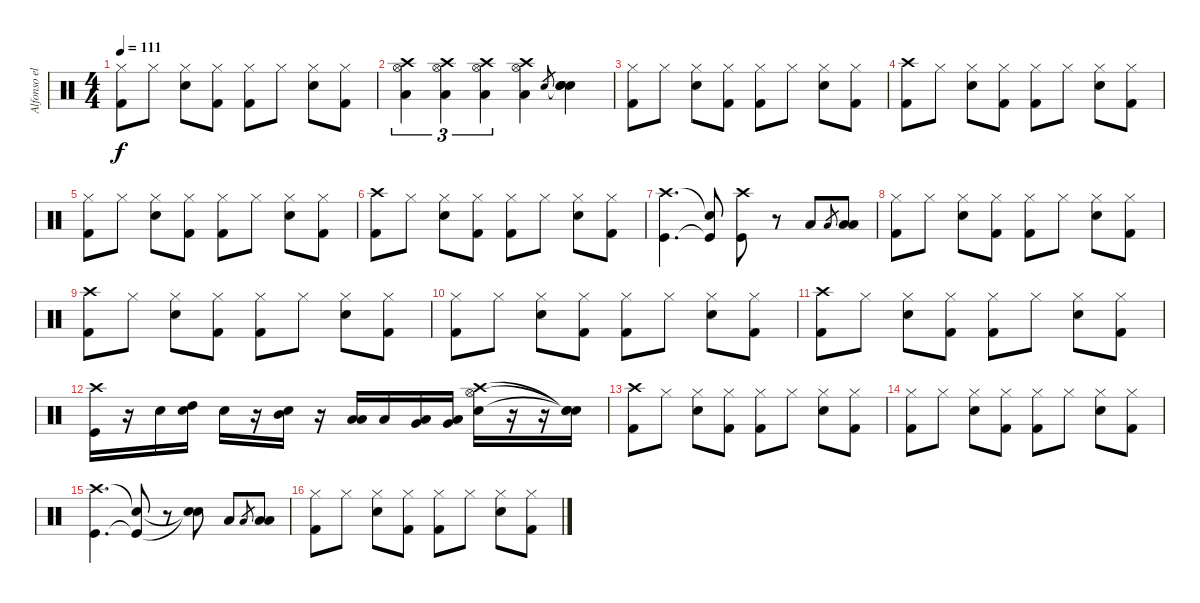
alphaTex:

\track ("Alfonso el flaco Andre" "Alfonso el") {instrument percussion}
\staff {score}
\articulation defaults
\ts (4 4)
\tempo 111
\clef neutral
\ks c
("Hi-Hat (closed)" "Kick (hit) 2").8{dy f} "Hi-Hat (closed)".8 ("Hi-Hat (closed)" "Snare (hit) 2").8 ("Hi-Hat (closed)" "Kick (hit) 2").8 ("Hi-Hat (closed)" "Kick (hit) 2").8 "Hi-Hat (closed)".8 ("Hi-Hat (closed)" "Snare (hit) 2").8 ("Hi-Hat (closed)" "Kick (hit) 2").8 |
("Hi-Hat (open)" "Crash high (hit)" "Low Floor Tom (hit)").4{tu (3 2)} ("Hi-Hat (open)" "Crash high (hit)" "Low Floor Tom (hit)").4{tu (3 2)} ("Hi-Hat (open)" "Crash high (hit)" "Low Floor Tom (hit)").4{tu (3 2)} ("Hi-Hat (open)" "Crash high (hit)" "Low Floor Tom (hit)").4 "Snare (hit) 2".8{gr} ("Snare (hit)"{t} "Snare (hit) 2" "Snare (hit) 2").4 |
("Hi-Hat (closed)" "Kick (hit) 2").8 "Hi-Hat (closed)".8 ("Hi-Hat (closed)" "Snare (hit) 2").8 ("Hi-Hat (closed)" "Kick (hit) 2").8 ("Hi-Hat (closed)" "Kick (hit) 2").8 "Hi-Hat (closed)".8 ("Hi-Hat (closed)" "Snare (hit) 2").8 ("Hi-Hat (closed)" "Kick (hit) 2").8 |
("Crash high (hit)" "Kick (hit) 2").8 "Hi-Hat (closed)".8 ("Hi-Hat (closed)" "Snare (hit) 2").8 ("Hi-Hat (closed)" "Kick (hit) 2").8 ("Hi-Hat (closed)" "Kick (hit) 2").8 "Hi-Hat (closed)".8 ("Hi-Hat (closed)" "Snare (hit) 2").8 ("Hi-Hat (closed)" "Kick (hit) 2").8 |
("Hi-Hat (closed)" "Kick (hit) 2").8 "Hi-Hat (closed)".8 ("Hi-Hat (closed)" "Snare (hit) 2").8 ("Hi-Hat (closed)" "Kick (hit) 2").8 ("Hi-Hat (closed)" "Kick (hit) 2").8 "Hi-Hat (closed)".8 ("Hi-Hat (closed)" "Snare (hit) 2").8 ("Hi-Hat (closed)" "Kick (hit) 2").8 |
("Crash high (hit)" "Kick (hit) 2").8 "Hi-Hat (closed)".8 ("Hi-Hat (closed)" "Snare (hit) 2").8 ("Hi-Hat (closed)" "Kick (hit) 2").8 ("Hi-Hat (closed)" "Kick (hit) 2").8 "Hi-Hat (closed)".8 ("Hi-Hat (closed)" "Snare (hit) 2").8 ("Hi-Hat (closed)" "Kick (hit) 2").8 |
("Crash high (hit)" "Kick (hit)").4{d} ("Snare (hit) 2"{t} "Kick (hit)"{t}).8 ("Kick (hit)" "Crash high (hit)").8 r.8 "Low Tom (hit)".8 "Low Floor Tom (hit)".8{gr} ("Low Floor Tom (hit)" "Low Floor Tom (hit)").8 |
("Hi-Hat (closed)" "Kick (hit) 2").8 "Hi-Hat (closed)".8 ("Hi-Hat (closed)" "Snare (hit) 2").8 ("Hi-Hat (closed)" "Kick (hit) 2").8 ("Hi-Hat (closed)" "Kick (hit) 2").8 "Hi-Hat (closed)".8 ("Hi-Hat (closed)" "Snare (hit) 2").8 ("Hi-Hat (closed)" "Kick (hit) 2").8 |
("Crash high (hit)" "Kick (hit) 2").8 "Hi-Hat (closed)".8 ("Hi-Hat (closed)" "Snare (hit) 2").8 ("Hi-Hat (closed)" "Kick (hit) 2").8 ("Hi-Hat (closed)" "Kick (hit) 2").8 "Hi-Hat (closed)".8 ("Hi-Hat (closed)" "Snare (hit) 2").8 ("Hi-Hat (closed)" "Kick (hit) 2").8 |
("Hi-Hat (closed)" "Kick (hit) 2").8 "Hi-Hat (closed)".8 ("Hi-Hat (closed)" "Snare (hit) 2").8 ("Hi-Hat (closed)" "Kick (hit) 2").8 ("Hi-Hat (closed)" "Kick (hit) 2").8 "Hi-Hat (closed)".8 ("Hi-Hat (closed)" "Snare (hit) 2").8 ("Hi-Hat (closed)" "Kick (hit) 2").8 |
("Crash high (hit)" "Kick (hit) 2").8 "Hi-Hat (closed)".8 ("Hi-Hat (closed)" "Snare (hit) 2").8 ("Hi-Hat (closed)" "Kick (hit) 2").8 ("Hi-Hat (closed)" "Kick (hit) 2").8 "Hi-Hat (closed)".8 ("Hi-Hat (closed)" "Snare (hit) 2").8 ("Hi-Hat (closed)" "Kick (hit) 2").8 |
("Crash high (hit)" "Kick (hit)").16 r.16 "Snare (hit) 2".16 ("High Tom (hit)" "Snare (hit) 2").16 "Snare (hit) 2".16 r.16 ("Mid Tom (hit)" "Snare (hit) 2").16 r.16 ("Low Floor Tom (hit)" "Low Tom (hit)").16 "Low Tom (hit)".16 ("Low Floor Tom (hit)" "Very Low Tom (hit)").16 ("Low Floor Tom (hit)" "Very Low Tom (hit)").16 ("Hi-Hat (open)" "Crash high (hit)" "Snare (hit) 2").16 r.16 r.16 ("Snare (hit)"{t} "Snare (hit)"{t} "Snare (hit)"{t}).16 |
("Crash high (hit)" "Kick (hit) 2").8 "Hi-Hat (closed)".8 ("Hi-Hat (closed)" "Snare (hit) 2").8 ("Hi-Hat (closed)" "Kick (hit) 2").8 ("Hi-Hat (closed)" "Kick (hit) 2").8 "Hi-Hat (closed)".8 ("Hi-Hat (closed)" "Snare (hit) 2").8 ("Hi-Hat (closed)" "Kick (hit) 2").8 |
("Hi-Hat (closed)" "Kick (hit) 2").8 "Hi-Hat (closed)".8 ("Hi-Hat (closed)" "Snare (hit) 2").8 ("Hi-Hat (closed)" "Kick (hit) 2").8 ("Hi-Hat (closed)" "Kick (hit) 2").8 "Hi-Hat (closed)".8 ("Hi-Hat (closed)" "Snare (hit) 2").8 ("Hi-Hat (closed)" "Kick (hit) 2").8 |
("Crash high (hit)" "Kick (hit)").4{d} ("Snare (hit) 2"{t} "Kick (hit)"{t}).8 r.8 ("Snare (hit)"{t} "Snare (hit)"{t}).8 "Low Tom (hit)".8 "Low Floor Tom (hit)".8{gr} ("Low Floor Tom (hit)" "Low Floor Tom (hit)").8 |
("Hi-Hat (closed)" "Kick (hit) 2").8 "Hi-Hat (closed)".8 ("Hi-Hat (closed)" "Snare (hit) 2").8 ("Hi-Hat (closed)" "Kick (hit) 2").8 ("Hi-Hat (closed)" "Kick (hit) 2").8 "Hi-Hat (closed)".8 ("Hi-Hat (closed)" "Snare (hit) 2").8 ("Hi-Hat (closed)" "Kick (hit) 2").8
